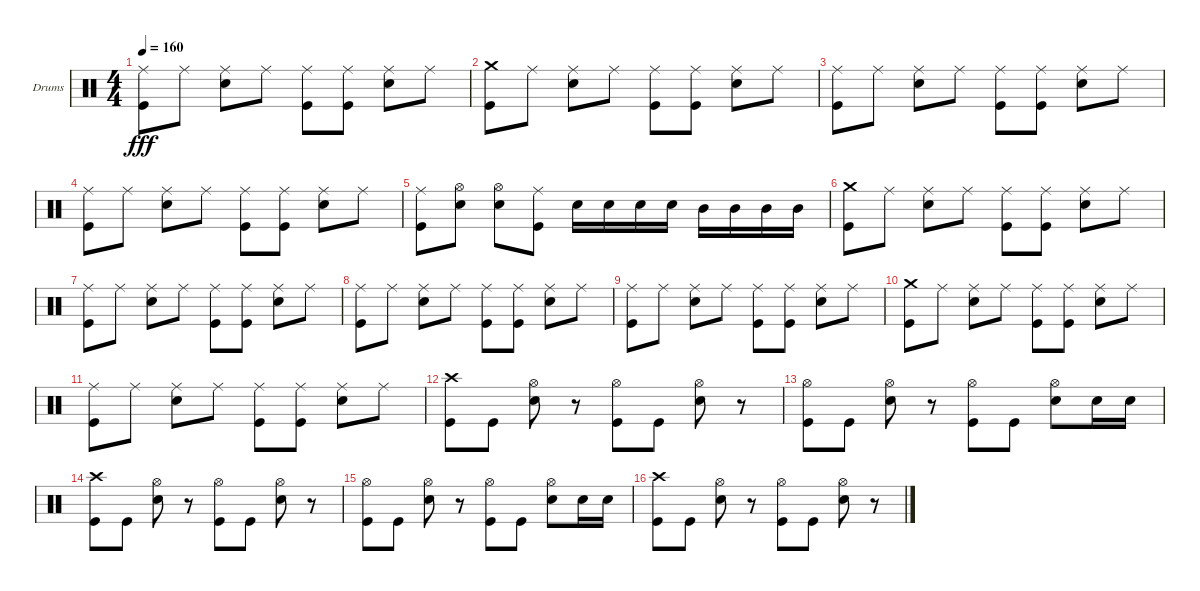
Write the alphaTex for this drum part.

\bracketExtendMode groupsimilarinstruments
\firstSystemTrackNameOrientation horizontal
\otherSystemsTrackNameOrientation horizontal
\track ("Drumkit" "Drums") {instrument percussion}
\staff {score}
\articulation defaults
\ts (4 4)
\tempo 160
\clef neutral
\ks c
("Kick (hit)" "Ride (middle)").8{dy fff} "Ride (middle)".8 ("Ride (middle)" "Snare (hit) 2").8 "Ride (middle)".8 ("Ride (middle)" "Kick (hit)").8 ("Ride (middle)" "Kick (hit)").8 ("Ride (middle)" "Snare (hit) 2").8 "Ride (middle)".8 |
("Kick (hit)" "Crash medium (hit)").8 "Ride (middle)".8 ("Ride (middle)" "Snare (hit) 2").8 "Ride (middle)".8 ("Ride (middle)" "Kick (hit)").8 ("Ride (middle)" "Kick (hit)").8 ("Ride (middle)" "Snare (hit) 2").8 "Ride (middle)".8 |
("Kick (hit)" "Ride (middle)").8 "Ride (middle)".8 ("Ride (middle)" "Snare (hit) 2").8 "Ride (middle)".8 ("Ride (middle)" "Kick (hit)").8 ("Ride (middle)" "Kick (hit)").8 ("Ride (middle)" "Snare (hit) 2").8 "Ride (middle)".8 |
("Kick (hit)" "Ride (middle)").8 "Ride (middle)".8 ("Ride (middle)" "Snare (hit) 2").8 "Ride (middle)".8 ("Ride (middle)" "Kick (hit)").8 ("Ride (middle)" "Kick (hit)").8 ("Ride (middle)" "Snare (hit) 2").8 "Ride (middle)".8 |
("Kick (hit)" "Ride (middle)").8 ("Hi-Hat (open)" "Snare (hit) 2").8 ("Hi-Hat (open)" "Snare (hit) 2").8 ("Ride (middle)" "Kick (hit)").8 "Snare (hit) 2".16 "Snare (hit) 2".16 "Snare (hit) 2".16 "Snare (hit) 2".16 "Mid Tom (hit)".16 "Mid Tom (hit)".16 "Mid Tom (hit)".16 "Mid Tom (hit)".16 |
("Kick (hit)" "Crash medium (hit)").8 "Ride (middle)".8 ("Ride (middle)" "Snare (hit) 2").8 "Ride (middle)".8 ("Ride (middle)" "Kick (hit)").8 ("Ride (middle)" "Kick (hit)").8 ("Ride (middle)" "Snare (hit) 2").8 "Ride (middle)".8 |
("Kick (hit)" "Ride (middle)").8 "Ride (middle)".8 ("Ride (middle)" "Snare (hit) 2").8 "Ride (middle)".8 ("Ride (middle)" "Kick (hit)").8 ("Ride (middle)" "Kick (hit)").8 ("Ride (middle)" "Snare (hit) 2").8 "Ride (middle)".8 |
("Kick (hit)" "Ride (middle)").8 "Ride (middle)".8 ("Ride (middle)" "Snare (hit) 2").8 "Ride (middle)".8 ("Ride (middle)" "Kick (hit)").8 ("Ride (middle)" "Kick (hit)").8 ("Ride (middle)" "Snare (hit) 2").8 "Ride (middle)".8 |
("Kick (hit)" "Ride (middle)").8 "Ride (middle)".8 ("Ride (middle)" "Snare (hit) 2").8 "Ride (middle)".8 ("Ride (middle)" "Kick (hit)").8 ("Ride (middle)" "Kick (hit)").8 ("Ride (middle)" "Snare (hit) 2").8 "Ride (middle)".8 |
("Kick (hit)" "Crash medium (hit)").8 "Ride (middle)".8 ("Ride (middle)" "Snare (hit) 2").8 "Ride (middle)".8 ("Ride (middle)" "Kick (hit)").8 ("Ride (middle)" "Kick (hit)").8 ("Ride (middle)" "Snare (hit) 2").8 "Ride (middle)".8 |
("Kick (hit)" "Ride (middle)").8 "Ride (middle)".8 ("Ride (middle)" "Snare (hit) 2").8 "Ride (middle)".8 ("Ride (middle)" "Kick (hit)").8 ("Ride (middle)" "Kick (hit)").8 ("Ride (middle)" "Snare (hit) 2").8 "Ride (middle)".8 |
("Kick (hit)" "Crash high (hit)").8 "Kick (hit)".8 ("Snare (hit) 2" "Hi-Hat (open)").8 r.8 ("Kick (hit)" "Hi-Hat (open)").8 "Kick (hit)".8 ("Snare (hit) 2" "Hi-Hat (open)").8 r.8 |
("Kick (hit)" "Hi-Hat (open)").8 "Kick (hit)".8 ("Snare (hit) 2" "Hi-Hat (open)").8 r.8 ("Kick (hit)" "Hi-Hat (open)").8 "Kick (hit)".8 ("Snare (hit) 2" "Hi-Hat (open)").8 "Snare (hit) 2".16 "Snare (hit) 2".16 |
("Kick (hit)" "Crash high (hit)").8 "Kick (hit)".8 ("Snare (hit) 2" "Hi-Hat (open)").8 r.8 ("Kick (hit)" "Hi-Hat (open)").8 "Kick (hit)".8 ("Snare (hit) 2" "Hi-Hat (open)").8 r.8 |
("Kick (hit)" "Hi-Hat (open)").8 "Kick (hit)".8 ("Snare (hit) 2" "Hi-Hat (open)").8 r.8 ("Kick (hit)" "Hi-Hat (open)").8 "Kick (hit)".8 ("Snare (hit) 2" "Hi-Hat (open)").8 "Snare (hit) 2".16 "Snare (hit) 2".16 |
("Kick (hit)" "Crash high (hit)").8 "Kick (hit)".8 ("Snare (hit) 2" "Hi-Hat (open)").8 r.8 ("Kick (hit)" "Hi-Hat (open)").8 "Kick (hit)".8 ("Snare (hit) 2" "Hi-Hat (open)").8 r.8
